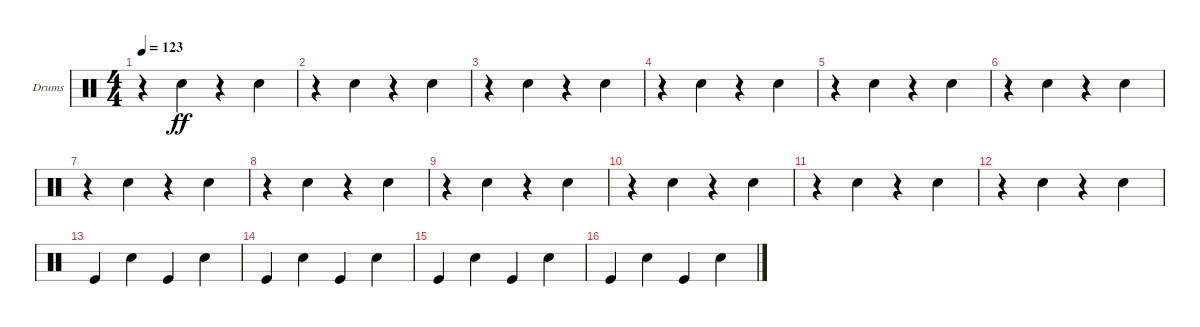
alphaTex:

\defaultSystemsLayout 4
\bracketExtendMode groupsimilarinstruments
\firstSystemTrackNameOrientation horizontal
\otherSystemsTrackNameOrientation horizontal
\track ("Drumkit" "Drums") {instrument percussion}
\staff {score}
\articulation defaults
\ts (4 4)
\tempo 123
\clef neutral
\scale
0.333333
\ks c
r.4{dy ff} "Snare (hit) 2".4 r.4 "Snare (hit) 2".4 |
\scale
0.333333 r.4 "Snare (hit) 2".4 r.4 "Snare (hit) 2".4 |
\scale
0.333333 r.4 "Snare (hit) 2".4 r.4 "Snare (hit) 2".4 |
\scale
0.333333 r.4 "Snare (hit) 2".4 r.4 "Snare (hit) 2".4 |
\scale
0.333333 r.4 "Snare (hit) 2".4 r.4 "Snare (hit) 2".4 |
\scale
0.333333 r.4 "Snare (hit) 2".4 r.4 "Snare (hit) 2".4 |
\scale
0.333333 r.4 "Snare (hit) 2".4 r.4 "Snare (hit) 2".4 |
\scale
0.333333 r.4 "Snare (hit) 2".4 r.4 "Snare (hit) 2".4 |
\scale
0.333333 r.4 "Snare (hit) 2".4 r.4 "Snare (hit) 2".4 |
\scale
0.333333 r.4 "Snare (hit) 2".4 r.4 "Snare (hit) 2".4 |
\scale
0.333333 r.4 "Snare (hit) 2".4 r.4 "Snare (hit) 2".4 |
\scale
0.333333 r.4 "Snare (hit) 2".4 r.4 "Snare (hit) 2".4 |
\scale
0.333333 "Kick (hit)".4 "Snare (hit) 2".4 "Kick (hit)".4 "Snare (hit) 2".4 |
\scale
0.333333 "Kick (hit)".4 "Snare (hit) 2".4 "Kick (hit)".4 "Snare (hit) 2".4 |
\scale
0.333333 "Kick (hit)".4 "Snare (hit) 2".4 "Kick (hit)".4 "Snare (hit) 2".4 |
\scale
0.333333 "Kick (hit)".4 "Snare (hit) 2".4 "Kick (hit)".4 "Snare (hit) 2".4
